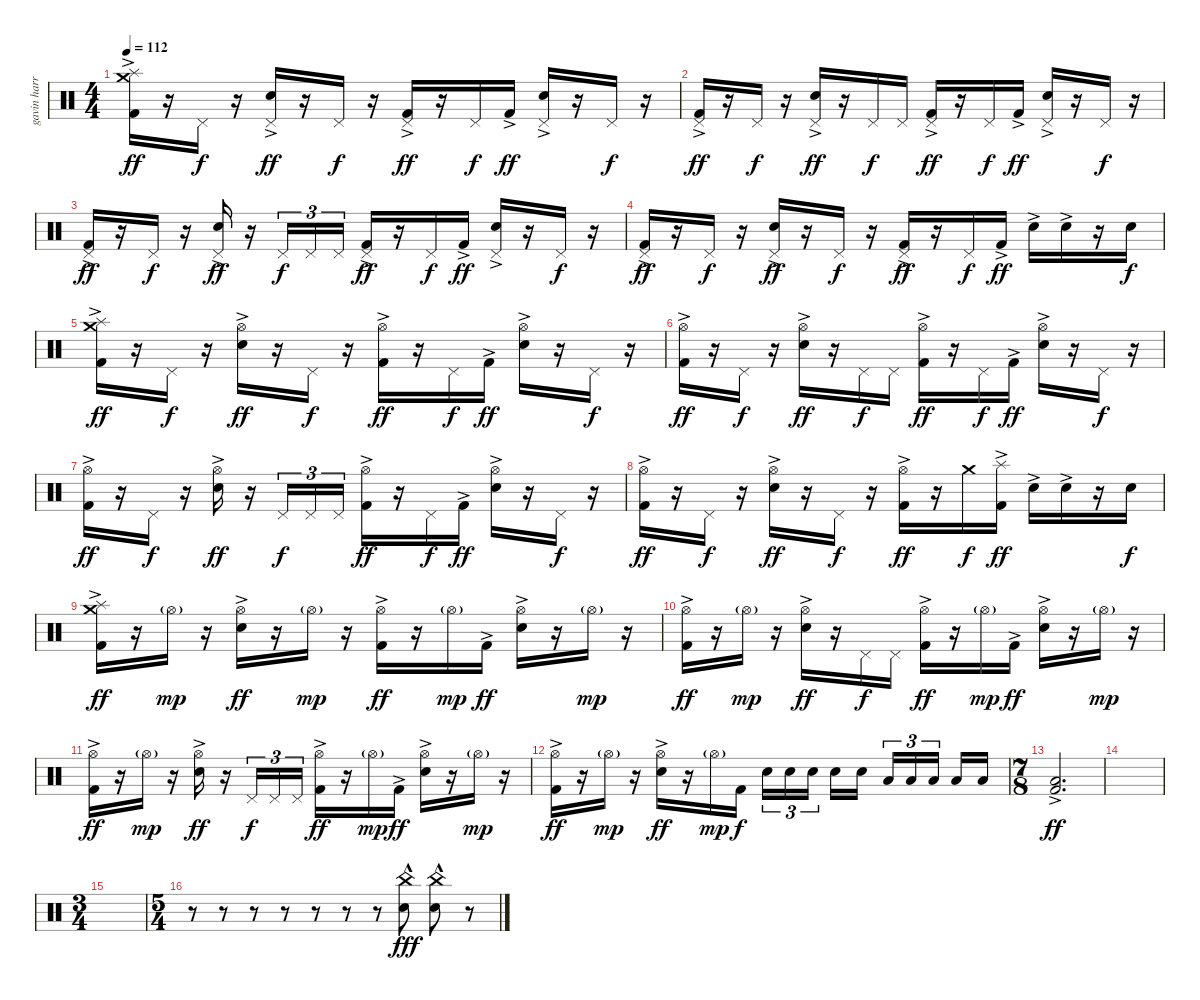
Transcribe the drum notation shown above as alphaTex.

\track ("gavin harrison" "gavin harr") {instrument percussion}
\staff {score}
\articulation defaults
\ts (4 4)
\tempo 112
\clef neutral
\ks c
("Crash medium (hit)" "Splash (hit)" "Kick (hit) 2"{ac}).16{dy ff} r.16 "Pedal Hi-Hat (hit)".16{dy f} r.16 ("Pedal Hi-Hat (hit)" "Electric Snare (hit)"{ac}).16{dy ff} r.16 "Pedal Hi-Hat (hit)".16{dy f} r.16 ("Pedal Hi-Hat (hit)" "Kick (hit) 2"{ac}).16{dy ff} r.16 "Pedal Hi-Hat (hit)".16{dy f} "Kick (hit) 2"{ac}.16{dy ff} ("Pedal Hi-Hat (hit)" "Electric Snare (hit)"{ac}).16 r.16 "Pedal Hi-Hat (hit)".16{dy f} r.16 |
("Pedal Hi-Hat (hit)" "Kick (hit) 2"{ac}).16{dy ff} r.16 "Pedal Hi-Hat (hit)".16{dy f} r.16 ("Pedal Hi-Hat (hit)" "Electric Snare (hit)"{ac}).16{dy ff} r.16 "Pedal Hi-Hat (hit)".16{dy f} "Pedal Hi-Hat (hit)".16 ("Pedal Hi-Hat (hit)" "Kick (hit) 2"{ac}).16{dy ff} r.16 "Pedal Hi-Hat (hit)".16{dy f} "Kick (hit) 2"{ac}.16{dy ff} ("Pedal Hi-Hat (hit)" "Electric Snare (hit)"{ac}).16 r.16 "Pedal Hi-Hat (hit)".16{dy f} r.16 |
("Pedal Hi-Hat (hit)" "Kick (hit) 2"{ac}).16{dy ff} r.16 "Pedal Hi-Hat (hit)".16{dy f} r.16 ("Pedal Hi-Hat (hit)" "Electric Snare (hit)"{ac}).16{dy ff} r.16 "Pedal Hi-Hat (hit)".16{tu (3 2) dy f} "Pedal Hi-Hat (hit)".16{tu (3 2)} "Pedal Hi-Hat (hit)".16{tu (3 2)} ("Pedal Hi-Hat (hit)" "Kick (hit) 2"{ac}).16{dy ff} r.16 "Pedal Hi-Hat (hit)".16{dy f} "Kick (hit) 2"{ac}.16{dy ff} ("Pedal Hi-Hat (hit)" "Electric Snare (hit)"{ac}).16 r.16 "Pedal Hi-Hat (hit)".16{dy f} r.16 |
("Pedal Hi-Hat (hit)" "Kick (hit) 2"{ac}).16{dy ff} r.16 "Pedal Hi-Hat (hit)".16{dy f} r.16 ("Pedal Hi-Hat (hit)" "Electric Snare (hit)"{ac}).16{dy ff} r.16 "Pedal Hi-Hat (hit)".16{dy f} r.16 ("Pedal Hi-Hat (hit)" "Kick (hit) 2"{ac}).16{dy ff} r.16 "Pedal Hi-Hat (hit)".16{dy f} "Kick (hit) 2"{ac}.16{dy ff} "Electric Snare (hit)"{ac}.16 "Electric Snare (hit)"{ac}.16 r.16 "Electric Snare (hit)".16{dy f} |
("Crash medium (hit)" "Splash (hit)" "Kick (hit) 2"{ac}).16{dy ff} r.16 "Pedal Hi-Hat (hit)".16{dy f} r.16 ("Hi-Hat (open)" "Electric Snare (hit)"{ac}).16{dy ff} r.16 "Pedal Hi-Hat (hit)".16{dy f} r.16 ("Hi-Hat (open)" "Kick (hit) 2"{ac}).16{dy ff} r.16 "Pedal Hi-Hat (hit)".16{dy f} "Kick (hit) 2"{ac}.16{dy ff} ("Hi-Hat (open)" "Electric Snare (hit)"{ac}).16 r.16 "Pedal Hi-Hat (hit)".16{dy f} r.16 |
("Hi-Hat (open)" "Kick (hit) 2"{ac}).16{dy ff} r.16 "Pedal Hi-Hat (hit)".16{dy f} r.16 ("Hi-Hat (open)" "Electric Snare (hit)"{ac}).16{dy ff} r.16 "Pedal Hi-Hat (hit)".16{dy f} "Pedal Hi-Hat (hit)".16 ("Hi-Hat (open)" "Kick (hit) 2"{ac}).16{dy ff} r.16 "Pedal Hi-Hat (hit)".16{dy f} "Kick (hit) 2"{ac}.16{dy ff} ("Hi-Hat (open)" "Electric Snare (hit)"{ac}).16 r.16 "Pedal Hi-Hat (hit)".16{dy f} r.16 |
("Hi-Hat (open)" "Kick (hit) 2"{ac}).16{dy ff} r.16 "Pedal Hi-Hat (hit)".16{dy f} r.16 ("Hi-Hat (open)" "Electric Snare (hit)"{ac}).16{dy ff} r.16 "Pedal Hi-Hat (hit)".16{tu (3 2) dy f} "Pedal Hi-Hat (hit)".16{tu (3 2)} "Pedal Hi-Hat (hit)".16{tu (3 2)} ("Hi-Hat (open)" "Kick (hit) 2"{ac}).16{dy ff} r.16 "Pedal Hi-Hat (hit)".16{dy f} "Kick (hit) 2"{ac}.16{dy ff} ("Hi-Hat (open)" "Electric Snare (hit)"{ac}).16 r.16 "Pedal Hi-Hat (hit)".16{dy f} r.16 |
("Hi-Hat (open)" "Kick (hit) 2"{ac}).16{dy ff} r.16 "Pedal Hi-Hat (hit)".16{dy f} r.16 ("Hi-Hat (open)" "Electric Snare (hit)"{ac}).16{dy ff} r.16 "Pedal Hi-Hat (hit)".16{dy f} r.16 ("Hi-Hat (open)" "Kick (hit) 2"{ac}).16{dy ff} r.16 "Crash medium (hit)".16{dy f} ("Splash (hit)" "Kick (hit) 2"{ac}).16{dy ff} "Electric Snare (hit)"{ac}.16 "Electric Snare (hit)"{ac}.16 r.16 "Electric Snare (hit)".16{dy f} |
("Crash medium (hit)" "Splash (hit)" "Kick (hit) 2"{ac}).16{dy ff} r.16 "Hi-Hat (open)"{g}.16{dy mp} r.16 ("Hi-Hat (open)" "Electric Snare (hit)"{ac}).16{dy ff} r.16 "Hi-Hat (open)"{g}.16{dy mp} r.16 ("Hi-Hat (open)" "Kick (hit) 2"{ac}).16{dy ff} r.16 "Hi-Hat (open)"{g}.16{dy mp} "Kick (hit) 2"{ac}.16{dy ff} ("Hi-Hat (open)" "Electric Snare (hit)"{ac}).16 r.16 "Hi-Hat (open)"{g}.16{dy mp} r.16 |
("Hi-Hat (open)" "Kick (hit) 2"{ac}).16{dy ff} r.16 "Hi-Hat (open)"{g}.16{dy mp} r.16 ("Hi-Hat (open)" "Electric Snare (hit)"{ac}).16{dy ff} r.16 "Pedal Hi-Hat (hit)".16{dy f} "Pedal Hi-Hat (hit)".16 ("Hi-Hat (open)" "Kick (hit) 2"{ac}).16{dy ff} r.16 "Hi-Hat (open)"{g}.16{dy mp} "Kick (hit) 2"{ac}.16{dy ff} ("Hi-Hat (open)" "Electric Snare (hit)"{ac}).16 r.16 "Hi-Hat (open)"{g}.16{dy mp} r.16 |
("Hi-Hat (open)" "Kick (hit) 2"{ac}).16{dy ff} r.16 "Hi-Hat (open)"{g}.16{dy mp} r.16 ("Hi-Hat (open)" "Electric Snare (hit)"{ac}).16{dy ff} r.16 "Pedal Hi-Hat (hit)".16{tu (3 2) dy f} "Pedal Hi-Hat (hit)".16{tu (3 2)} "Pedal Hi-Hat (hit)".16{tu (3 2)} ("Hi-Hat (open)" "Kick (hit) 2"{ac}).16{dy ff} r.16 "Hi-Hat (open)"{g}.16{dy mp} "Kick (hit) 2"{ac}.16{dy ff} ("Hi-Hat (open)" "Electric Snare (hit)"{ac}).16 r.16 "Hi-Hat (open)"{g}.16{dy mp} r.16 |
("Hi-Hat (open)" "Kick (hit) 2"{ac}).16{dy ff} r.16 "Hi-Hat (open)"{g}.16{dy mp} r.16 ("Hi-Hat (open)" "Electric Snare (hit)"{ac}).16{dy ff} r.16 "Hi-Hat (open)"{g}.16{dy mp} "Kick (hit) 2".16{dy f} "Electric Snare (hit)".16{tu (3 2)} "Electric Snare (hit)".16{tu (3 2)} "Electric Snare (hit)".16{tu (3 2) beam splitsecondary} "Electric Snare (hit)".16 "Electric Snare (hit)".16 "Low Tom (hit)".16{tu (3 2)} "Low Tom (hit)".16{tu (3 2)} "Low Tom (hit)".16{tu (3 2) beam splitsecondary} "Low Tom (hit)".16 "Low Tom (hit)".16 |
\ts (7 8)
("Low Floor Tom (hit)" "Kick (hit) 2"{ac}).2{d dy ff} |
|
\ts (3 4)
|
\ts (5 4)
r.8 r.8 r.8 r.8 r.8 r.8 r.8 ("China (hit)" "Electric Snare (hit)"{hac}).8{dy fff} ("China (hit)" "Electric Snare (hit)"{hac}).8 r.8
